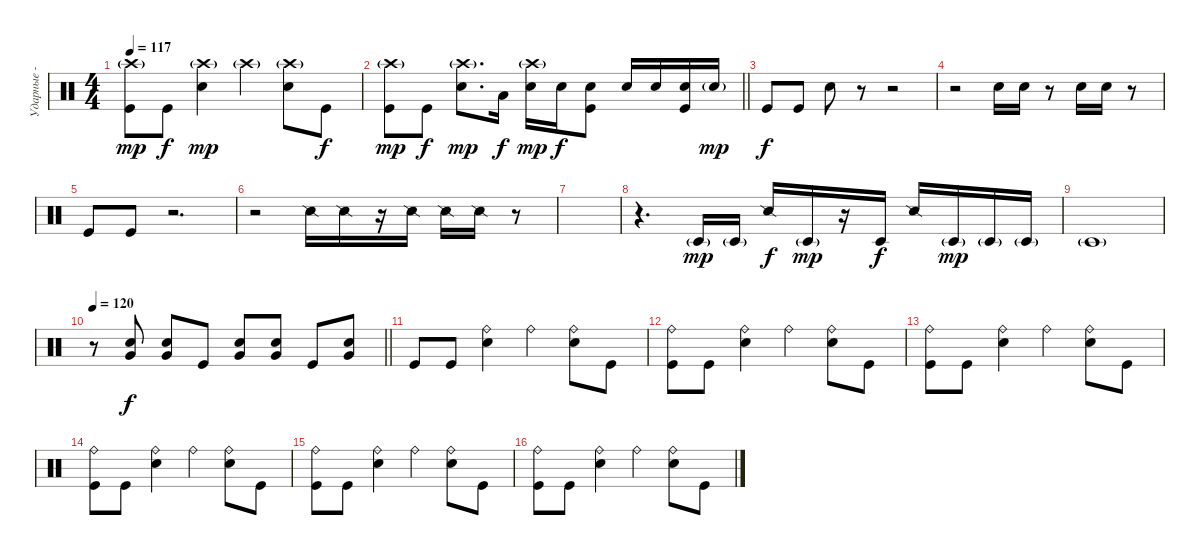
\track ("Ударные - Джек Уайт" "Ударные - ") {instrument percussion}
\staff {score}
\articulation defaults
\ts (4 4)
\tempo 117
\clef neutral
\ks c
("Crash high (hit)"{g} "Kick (hit)").8{dy mp} "Kick (hit)".8{dy f} ("Crash high (hit)"{g} "Snare (hit) 2").4{dy mp} "Crash high (hit)"{g}.4 ("Crash high (hit)"{g} "Snare (hit) 2").8 "Kick (hit)".8{dy f} |
\barLineRight lightlight
("Crash high (hit)"{g} "Kick (hit)").8{dy mp} "Kick (hit)".8{dy f} ("Crash high (hit)"{g} "Snare (hit) 2").8{d dy mp} "Low Tom (hit)".16{dy f} ("Crash high (hit)"{g} "Snare (hit) 2").16{dy mp} "Snare (hit) 2".16{dy f} ("Snare (hit) 2" "Kick (hit)").8 "Snare (hit) 2".16 "Snare (hit) 2".16 ("Snare (hit) 2" "Kick (hit)").16 "Snare (hit) 2"{g}.16{dy mp} |
"Kick (hit)".8{dy f} "Kick (hit)".8 "Snare (hit) 2".8 r.8 r.2 |
r.2 "Snare (hit) 2".16 "Snare (hit) 2".16 r.8 "Snare (hit) 2".16 "Snare (hit) 2".16 r.8 |
"Kick (hit)".8 "Kick (hit)".8 r.2{d} |
r.2 "Snare (side stick) 2".16 "Snare (side stick) 2".16 r.16 "Snare (side stick) 2".16 "Snare (side stick) 2".16 "Snare (side stick) 2".16 r.8 |
|
r.4{d} "Timbale low (hit)"{g}.16{dy mp} "Timbale low (hit)"{g}.16 "Snare (side stick) 2".16{dy f} "Timbale low (hit)"{g}.16{dy mp} r.16 "Timbale low (hit)".16{dy f} "Snare (side stick) 2".16 "Timbale low (hit)"{g}.16{dy mp} "Timbale low (hit)"{g}.16 "Timbale low (hit)"{g}.16 |
"Timbale low (hit)"{g}.1 |
\tempo 120
\barLineRight lightlight
r.8 ("Electric Snare (hit)" "Very Low Tom (hit)").8{dy f} ("Electric Snare (hit)" "Very Low Tom (hit)").8 "Kick (hit)".8 ("Electric Snare (hit)" "Very Low Tom (hit)").8 ("Electric Snare (hit)" "Very Low Tom (hit)").8 "Kick (hit)".8 ("Electric Snare (hit)" "Very Low Tom (hit)").8 |
"Kick (hit)".8 "Kick (hit)".8 ("Ride (bell)" "Snare (hit) 2").4 "Ride (bell)".4 ("Ride (bell)" "Snare (hit) 2").8 "Kick (hit)".8 |
("Ride (bell)" "Kick (hit)").8 "Kick (hit)".8 ("Ride (bell)" "Snare (hit) 2").4 "Ride (bell)".4 ("Ride (bell)" "Snare (hit) 2").8 "Kick (hit)".8 |
("Ride (bell)" "Kick (hit)").8 "Kick (hit)".8 ("Ride (bell)" "Snare (hit) 2").4 "Ride (bell)".4 ("Ride (bell)" "Snare (hit) 2").8 "Kick (hit)".8 |
("Ride (bell)" "Kick (hit)").8 "Kick (hit)".8 ("Ride (bell)" "Snare (hit) 2").4 "Ride (bell)".4 ("Ride (bell)" "Snare (hit) 2").8 "Kick (hit)".8 |
("Ride (bell)" "Kick (hit)").8 "Kick (hit)".8 ("Ride (bell)" "Snare (hit) 2").4 "Ride (bell)".4 ("Ride (bell)" "Snare (hit) 2").8 "Kick (hit)".8 |
("Ride (bell)" "Kick (hit)").8 "Kick (hit)".8 ("Ride (bell)" "Snare (hit) 2").4 "Ride (bell)".4 ("Ride (bell)" "Snare (hit) 2").8 "Kick (hit)".8
